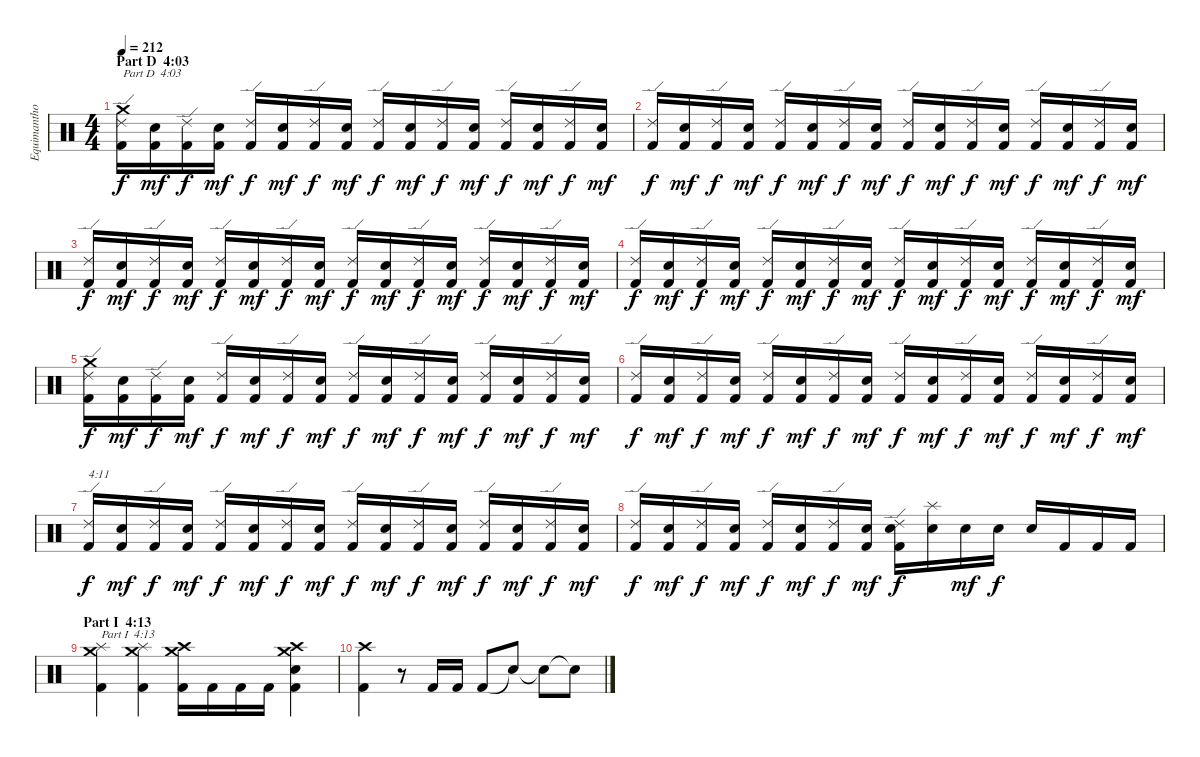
\track ("Equimanthorn" "Equimantho") {instrument percussion}
\staff {score}
\articulation defaults
\ts (4 4)
\section ("" "Part D  4:03")
\tempo 212
\clef neutral
\ks c
("Kick (hit) 2" "Ride (edge) 2" "Crash medium (hit)").16{txt "Part D  4:03" dy f} ("Kick (hit) 2" "Electric Snare (hit)").16{dy mf} ("Kick (hit) 2" "Ride (edge) 2").16{dy f} ("Kick (hit) 2" "Electric Snare (hit)").16{dy mf} ("Kick (hit) 2" "Ride (edge) 2").16{dy f} ("Kick (hit) 2" "Electric Snare (hit)").16{dy mf} ("Kick (hit) 2" "Ride (edge) 2").16{dy f} ("Kick (hit) 2" "Electric Snare (hit)").16{dy mf} ("Kick (hit) 2" "Ride (edge) 2").16{dy f} ("Kick (hit) 2" "Electric Snare (hit)").16{dy mf} ("Kick (hit) 2" "Ride (edge) 2").16{dy f} ("Kick (hit) 2" "Electric Snare (hit)").16{dy mf} ("Kick (hit) 2" "Ride (edge) 2").16{dy f} ("Kick (hit) 2" "Electric Snare (hit)").16{dy mf} ("Kick (hit) 2" "Ride (edge) 2").16{dy f} ("Kick (hit) 2" "Electric Snare (hit)").16{dy mf} |
("Kick (hit) 2" "Ride (edge) 2").16{dy f} ("Kick (hit) 2" "Electric Snare (hit)").16{dy mf} ("Kick (hit) 2" "Ride (edge) 2").16{dy f} ("Kick (hit) 2" "Electric Snare (hit)").16{dy mf} ("Kick (hit) 2" "Ride (edge) 2").16{dy f} ("Kick (hit) 2" "Electric Snare (hit)").16{dy mf} ("Kick (hit) 2" "Ride (edge) 2").16{dy f} ("Kick (hit) 2" "Electric Snare (hit)").16{dy mf} ("Kick (hit) 2" "Ride (edge) 2").16{dy f} ("Kick (hit) 2" "Electric Snare (hit)").16{dy mf} ("Kick (hit) 2" "Ride (edge) 2").16{dy f} ("Kick (hit) 2" "Electric Snare (hit)").16{dy mf} ("Kick (hit) 2" "Ride (edge) 2").16{dy f} ("Kick (hit) 2" "Electric Snare (hit)").16{dy mf} ("Kick (hit) 2" "Ride (edge) 2").16{dy f} ("Kick (hit) 2" "Electric Snare (hit)").16{dy mf} |
("Kick (hit) 2" "Ride (edge) 2").16{dy f} ("Kick (hit) 2" "Electric Snare (hit)").16{dy mf} ("Kick (hit) 2" "Ride (edge) 2").16{dy f} ("Kick (hit) 2" "Electric Snare (hit)").16{dy mf} ("Kick (hit) 2" "Ride (edge) 2").16{dy f} ("Kick (hit) 2" "Electric Snare (hit)").16{dy mf} ("Kick (hit) 2" "Ride (edge) 2").16{dy f} ("Kick (hit) 2" "Electric Snare (hit)").16{dy mf} ("Kick (hit) 2" "Ride (edge) 2").16{dy f} ("Kick (hit) 2" "Electric Snare (hit)").16{dy mf} ("Kick (hit) 2" "Ride (edge) 2").16{dy f} ("Kick (hit) 2" "Electric Snare (hit)").16{dy mf} ("Kick (hit) 2" "Ride (edge) 2").16{dy f} ("Kick (hit) 2" "Electric Snare (hit)").16{dy mf} ("Kick (hit) 2" "Ride (edge) 2").16{dy f} ("Kick (hit) 2" "Electric Snare (hit)").16{dy mf} |
("Kick (hit) 2" "Ride (edge) 2").16{dy f} ("Kick (hit) 2" "Electric Snare (hit)").16{dy mf} ("Kick (hit) 2" "Ride (edge) 2").16{dy f} ("Kick (hit) 2" "Electric Snare (hit)").16{dy mf} ("Kick (hit) 2" "Ride (edge) 2").16{dy f} ("Kick (hit) 2" "Electric Snare (hit)").16{dy mf} ("Kick (hit) 2" "Ride (edge) 2").16{dy f} ("Kick (hit) 2" "Electric Snare (hit)").16{dy mf} ("Kick (hit) 2" "Ride (edge) 2").16{dy f} ("Kick (hit) 2" "Electric Snare (hit)").16{dy mf} ("Kick (hit) 2" "Ride (edge) 2").16{dy f} ("Kick (hit) 2" "Electric Snare (hit)").16{dy mf} ("Kick (hit) 2" "Ride (edge) 2").16{dy f} ("Kick (hit) 2" "Electric Snare (hit)").16{dy mf} ("Kick (hit) 2" "Ride (edge) 2").16{dy f} ("Kick (hit) 2" "Electric Snare (hit)").16{dy mf} |
("Kick (hit) 2" "Ride (edge) 2" "Crash medium (hit)").16{dy f} ("Kick (hit) 2" "Electric Snare (hit)").16{dy mf} ("Kick (hit) 2" "Ride (edge) 2").16{dy f} ("Kick (hit) 2" "Electric Snare (hit)").16{dy mf} ("Kick (hit) 2" "Ride (edge) 2").16{dy f} ("Kick (hit) 2" "Electric Snare (hit)").16{dy mf} ("Kick (hit) 2" "Ride (edge) 2").16{dy f} ("Kick (hit) 2" "Electric Snare (hit)").16{dy mf} ("Kick (hit) 2" "Ride (edge) 2").16{dy f} ("Kick (hit) 2" "Electric Snare (hit)").16{dy mf} ("Kick (hit) 2" "Ride (edge) 2").16{dy f} ("Kick (hit) 2" "Electric Snare (hit)").16{dy mf} ("Kick (hit) 2" "Ride (edge) 2").16{dy f} ("Kick (hit) 2" "Electric Snare (hit)").16{dy mf} ("Kick (hit) 2" "Ride (edge) 2").16{dy f} ("Kick (hit) 2" "Electric Snare (hit)").16{dy mf} |
("Kick (hit) 2" "Ride (edge) 2").16{dy f} ("Kick (hit) 2" "Electric Snare (hit)").16{dy mf} ("Kick (hit) 2" "Ride (edge) 2").16{dy f} ("Kick (hit) 2" "Electric Snare (hit)").16{dy mf} ("Kick (hit) 2" "Ride (edge) 2").16{dy f} ("Kick (hit) 2" "Electric Snare (hit)").16{dy mf} ("Kick (hit) 2" "Ride (edge) 2").16{dy f} ("Kick (hit) 2" "Electric Snare (hit)").16{dy mf} ("Kick (hit) 2" "Ride (edge) 2").16{dy f} ("Kick (hit) 2" "Electric Snare (hit)").16{dy mf} ("Kick (hit) 2" "Ride (edge) 2").16{dy f} ("Kick (hit) 2" "Electric Snare (hit)").16{dy mf} ("Kick (hit) 2" "Ride (edge) 2").16{dy f} ("Kick (hit) 2" "Electric Snare (hit)").16{dy mf} ("Kick (hit) 2" "Ride (edge) 2").16{dy f} ("Kick (hit) 2" "Electric Snare (hit)").16{dy mf} |
("Kick (hit) 2" "Ride (edge) 2").16{txt "4:11" dy f} ("Kick (hit) 2" "Electric Snare (hit)").16{dy mf} ("Kick (hit) 2" "Ride (edge) 2").16{dy f} ("Kick (hit) 2" "Electric Snare (hit)").16{dy mf} ("Kick (hit) 2" "Ride (edge) 2").16{dy f} ("Kick (hit) 2" "Electric Snare (hit)").16{dy mf} ("Kick (hit) 2" "Ride (edge) 2").16{dy f} ("Kick (hit) 2" "Electric Snare (hit)").16{dy mf} ("Kick (hit) 2" "Ride (edge) 2").16{dy f} ("Kick (hit) 2" "Electric Snare (hit)").16{dy mf} ("Kick (hit) 2" "Ride (edge) 2").16{dy f} ("Kick (hit) 2" "Electric Snare (hit)").16{dy mf} ("Kick (hit) 2" "Ride (edge) 2").16{dy f} ("Kick (hit) 2" "Electric Snare (hit)").16{dy mf} ("Kick (hit) 2" "Ride (edge) 2").16{dy f} ("Kick (hit) 2" "Electric Snare (hit)").16{dy mf} |
("Kick (hit) 2" "Ride (edge) 2").16{dy f} ("Kick (hit) 2" "Electric Snare (hit)").16{dy mf} ("Kick (hit) 2" "Ride (edge) 2").16{dy f} ("Kick (hit) 2" "Electric Snare (hit)").16{dy mf} ("Kick (hit) 2" "Ride (edge) 2").16{dy f} ("Kick (hit) 2" "Electric Snare (hit)").16{dy mf} ("Kick (hit) 2" "Ride (edge) 2").16{dy f} ("Kick (hit) 2" "Electric Snare (hit)").16{dy mf} ("Kick (hit) 2" "Electric Snare (hit)" "Ride (edge) 2").16{dy f} ("Electric Snare (hit)" "Splash (hit)").16 "Electric Snare (hit)".16{dy mf} "Electric Snare (hit)".16{dy f} "Electric Snare (hit)".16 "Kick (hit) 2".16 "Kick (hit) 2".16 "Kick (hit) 2".16 |
\section ("" "Part I  4:13")
("Kick (hit) 2" "Splash (hit)" "Crash medium (hit)").4{txt "Part I  4:13"} ("Kick (hit) 2" "Splash (hit)" "Crash medium (hit)").4 ("Kick (hit) 2" "Crash high (hit)" "Crash medium (hit)").16 "Kick (hit) 2".16 "Kick (hit) 2".16 "Kick (hit) 2".16 ("Kick (hit) 2" "Electric Snare (hit)" "Crash high (hit)" "Crash medium (hit)").4 |
("Kick (hit) 2" "Crash high (hit)").4 r.8 "Kick (hit) 2".16 "Kick (hit) 2".16 "Kick (hit) 2".8 "Snare (hit)"{t}.8 "Snare (hit)"{t}.8 "Snare (hit)"{t}.8
